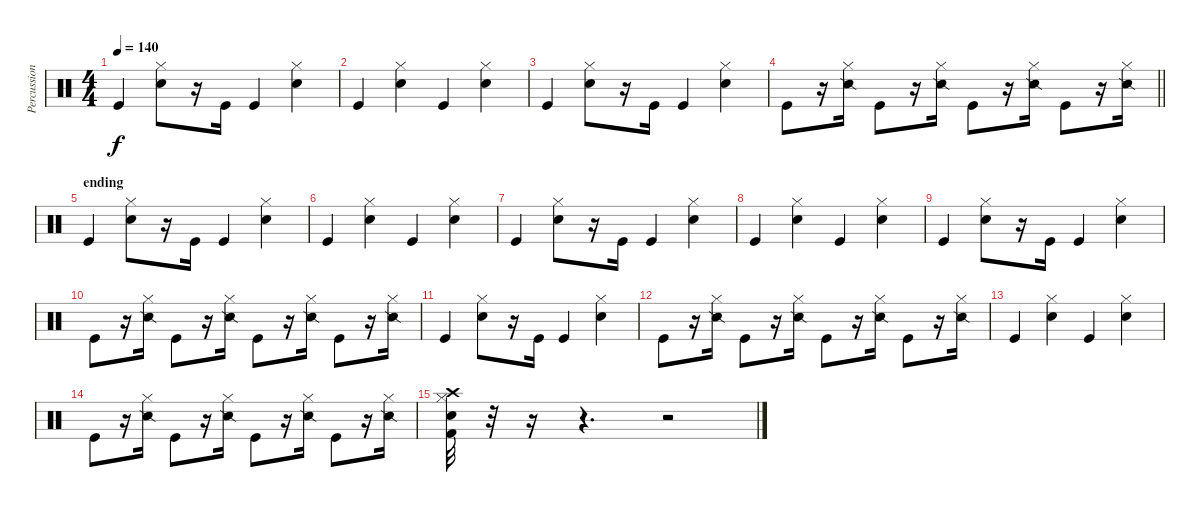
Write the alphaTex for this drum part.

\track ("Percussions" "Percussion") {instrument percussion}
\staff {score}
\articulation defaults
\ts (4 4)
\tempo 140
\clef neutral
\ks c "Kick (hit)".4{dy f}
("Hi-Hat (closed)" "Electric Snare (hit)").8 r.16 "Kick (hit)".16 "Kick (hit)".4 ("Hi-Hat (closed)" "Electric Snare (hit)").4 |
"Kick (hit)".4 ("Hi-Hat (closed)" "Electric Snare (hit)").4 "Kick (hit)".4 ("Hi-Hat (closed)" "Electric Snare (hit)").4 |
"Kick (hit)".4 ("Hi-Hat (closed)" "Electric Snare (hit)").8 r.16 "Kick (hit)".16 "Kick (hit)".4 ("Hi-Hat (closed)" "Electric Snare (hit)").4 |
\barLineRight lightlight "Kick (hit)".8
r.16 ("Hi-Hat (closed)" "Snare (side stick) 2").16 "Kick (hit)".8 r.16 ("Hi-Hat (closed)" "Snare (side stick) 2").16 "Kick (hit)".8 r.16 ("Hi-Hat (closed)" "Snare (side stick) 2").16 "Kick (hit)".8 r.16 ("Hi-Hat (closed)" "Snare (side stick) 2").16 |
\section ("" "ending")
"Kick (hit)".4 ("Hi-Hat (closed)" "Electric Snare (hit)").8 r.16 "Kick (hit)".16 "Kick (hit)".4 ("Hi-Hat (closed)" "Electric Snare (hit)").4 |
"Kick (hit)".4 ("Hi-Hat (closed)" "Electric Snare (hit)").4 "Kick (hit)".4 ("Hi-Hat (closed)" "Electric Snare (hit)").4 |
"Kick (hit)".4 ("Hi-Hat (closed)" "Electric Snare (hit)").8 r.16 "Kick (hit)".16 "Kick (hit)".4 ("Hi-Hat (closed)" "Electric Snare (hit)").4 |
"Kick (hit)".4 ("Hi-Hat (closed)" "Electric Snare (hit)").4 "Kick (hit)".4 ("Hi-Hat (closed)" "Electric Snare (hit)").4 |
"Kick (hit)".4 ("Hi-Hat (closed)" "Electric Snare (hit)").8 r.16 "Kick (hit)".16 "Kick (hit)".4 ("Hi-Hat (closed)" "Electric Snare (hit)").4 |
"Kick (hit)".8 r.16 ("Hi-Hat (closed)" "Snare (side stick) 2").16 "Kick (hit)".8 r.16 ("Hi-Hat (closed)" "Snare (side stick) 2").16 "Kick (hit)".8 r.16 ("Hi-Hat (closed)" "Snare (side stick) 2").16 "Kick (hit)".8 r.16 ("Hi-Hat (closed)" "Snare (side stick) 2").16 |
"Kick (hit)".4 ("Hi-Hat (closed)" "Electric Snare (hit)").8 r.16 "Kick (hit)".16 "Kick (hit)".4 ("Hi-Hat (closed)" "Electric Snare (hit)").4 |
"Kick (hit)".8 r.16 ("Hi-Hat (closed)" "Snare (side stick) 2").16 "Kick (hit)".8 r.16 ("Hi-Hat (closed)" "Snare (side stick) 2").16 "Kick (hit)".8 r.16 ("Hi-Hat (closed)" "Snare (side stick) 2").16 "Kick (hit)".8 r.16 ("Hi-Hat (closed)" "Snare (side stick) 2").16 |
"Kick (hit)".4 ("Hi-Hat (closed)" "Electric Snare (hit)").4 "Kick (hit)".4 ("Hi-Hat (closed)" "Electric Snare (hit)").4 |
"Kick (hit)".8 r.16 ("Hi-Hat (closed)" "Snare (side stick) 2").16 "Kick (hit)".8 r.16 ("Hi-Hat (closed)" "Snare (side stick) 2").16 "Kick (hit)".8 r.16 ("Hi-Hat (closed)" "Snare (side stick) 2").16 "Kick (hit)".8 r.16 ("Hi-Hat (closed)" "Snare (side stick) 2").16 |
("Snare (hit) 2" "Kick (hit) 2" "Hi-Hat (closed)" "Crash high (hit)").32 r.32 r.16 r.4{d} r.2
